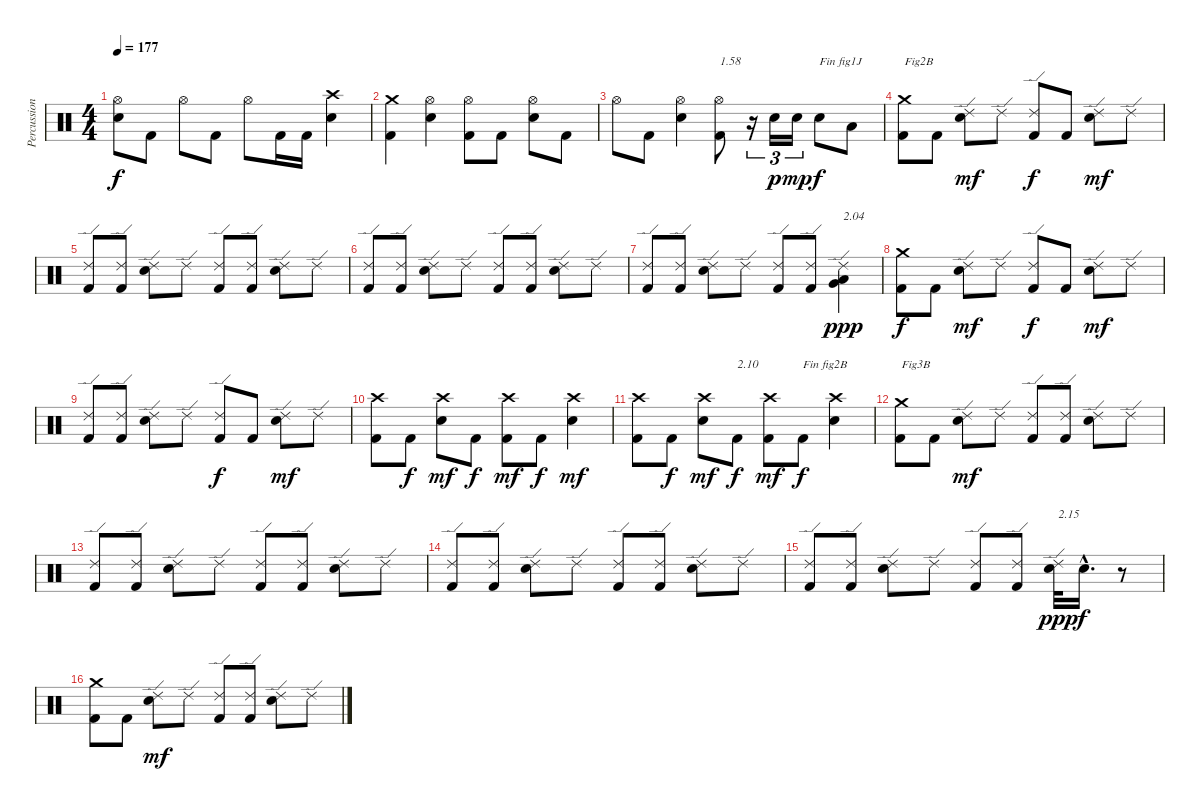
\track ("Percussions" "Percussion") {instrument percussion}
\staff {score}
\articulation defaults
\ts (4 4)
\tempo 177
\clef neutral
\ks c
("Electric Snare (hit)" "Hi-Hat (open)").8{dy f} "Kick (hit) 2".8 "Hi-Hat (open)".8 "Kick (hit) 2".8 "Hi-Hat (open)".8 "Kick (hit) 2".16 "Kick (hit) 2".16 ("Electric Snare (hit)" "Crash high (hit)").4 |
("Kick (hit) 2" "Crash medium (hit)").4 ("Electric Snare (hit)" "Hi-Hat (open)").4 ("Kick (hit) 2" "Hi-Hat (open)").8 "Kick (hit) 2".8 ("Electric Snare (hit)" "Hi-Hat (open)").8 "Kick (hit) 2".8 |
"Hi-Hat (open)".8 "Kick (hit) 2".8 ("Electric Snare (hit)" "Hi-Hat (open)").4 ("Kick (hit) 2" "Hi-Hat (open)").8{txt "1.58"} r.16{tu (3 2)} "Electric Snare (hit)".16{tu (3 2) dy p} "Electric Snare (hit)".16{tu (3 2) dy mp} "Electric Snare (hit)".8{txt "Fin fig1J" dy f} "Low Tom (hit)".8 |
("Kick (hit) 2" "Crash medium (hit)").8{txt "Fig2B"} "Kick (hit) 2".8 ("Electric Snare (hit)" "Ride (edge) 2").8{dy mf} "Ride (edge) 2".8 ("Kick (hit) 2" "Ride (edge) 2").8{dy f} "Kick (hit) 2".8 ("Electric Snare (hit)" "Ride (edge) 2").8{dy mf} "Ride (edge) 2".8 |
("Kick (hit) 2" "Ride (edge) 2").8 ("Kick (hit) 2" "Ride (edge) 2").8 ("Electric Snare (hit)" "Ride (edge) 2").8 "Ride (edge) 2".8 ("Kick (hit) 2" "Ride (edge) 2").8 ("Kick (hit) 2" "Ride (edge) 2").8 ("Electric Snare (hit)" "Ride (edge) 2").8 "Ride (edge) 2".8 |
("Kick (hit) 2" "Ride (edge) 2").8 ("Kick (hit) 2" "Ride (edge) 2").8 ("Electric Snare (hit)" "Ride (edge) 2").8 "Ride (edge) 2".8 ("Kick (hit) 2" "Ride (edge) 2").8 ("Kick (hit) 2" "Ride (edge) 2").8 ("Electric Snare (hit)" "Ride (edge) 2").8 "Ride (edge) 2".8 |
("Kick (hit) 2" "Ride (edge) 2").8 ("Kick (hit) 2" "Ride (edge) 2").8 ("Electric Snare (hit)" "Ride (edge) 2").8 "Ride (edge) 2".8 ("Kick (hit) 2" "Ride (edge) 2").8 ("Kick (hit) 2" "Ride (edge) 2").8 ("Low Floor Tom (hit)" "Very Low Tom (hit)" "Ride (edge) 2").4{txt "2.04" dy ppp} |
("Kick (hit) 2" "Crash medium (hit)").8{dy f} "Kick (hit) 2".8 ("Electric Snare (hit)" "Ride (edge) 2").8{dy mf} "Ride (edge) 2".8 ("Kick (hit) 2" "Ride (edge) 2").8{dy f} "Kick (hit) 2".8 ("Electric Snare (hit)" "Ride (edge) 2").8{dy mf} "Ride (edge) 2".8 |
("Kick (hit) 2" "Ride (edge) 2").8 ("Kick (hit) 2" "Ride (edge) 2").8 ("Electric Snare (hit)" "Ride (edge) 2").8 "Ride (edge) 2".8 ("Kick (hit) 2" "Ride (edge) 2").8{dy f} "Kick (hit) 2".8 ("Electric Snare (hit)" "Ride (edge) 2").8{dy mf} "Ride (edge) 2".8 |
("Kick (hit) 2" "Crash high (hit)").8 "Kick (hit) 2".8{dy f} ("Electric Snare (hit)" "Crash high (hit)").8{dy mf} "Kick (hit) 2".8{dy f} ("Kick (hit) 2" "Crash high (hit)").8{dy mf} "Kick (hit) 2".8{dy f} ("Electric Snare (hit)" "Crash high (hit)").4{dy mf} |
("Kick (hit) 2" "Crash high (hit)").8 "Kick (hit) 2".8{dy f} ("Electric Snare (hit)" "Crash high (hit)").8{dy mf} "Kick (hit) 2".8{txt "2.10" dy f} ("Kick (hit) 2" "Crash high (hit)").8{dy mf} "Kick (hit) 2".8{txt "Fin fig2B" dy f} ("Electric Snare (hit)" "Crash high (hit)").4 |
("Kick (hit) 2" "Crash medium (hit)").8{txt "Fig3B"} "Kick (hit) 2".8 ("Electric Snare (hit)" "Ride (edge) 2").8{dy mf} "Ride (edge) 2".8 ("Kick (hit) 2" "Ride (edge) 2").8 ("Kick (hit) 2" "Ride (edge) 2").8 ("Electric Snare (hit)" "Ride (edge) 2").8 "Ride (edge) 2".8 |
("Kick (hit) 2" "Ride (edge) 2").8 ("Kick (hit) 2" "Ride (edge) 2").8 ("Electric Snare (hit)" "Ride (edge) 2").8 "Ride (edge) 2".8 ("Kick (hit) 2" "Ride (edge) 2").8 ("Kick (hit) 2" "Ride (edge) 2").8 ("Electric Snare (hit)" "Ride (edge) 2").8 "Ride (edge) 2".8 |
("Kick (hit) 2" "Ride (edge) 2").8 ("Kick (hit) 2" "Ride (edge) 2").8 ("Electric Snare (hit)" "Ride (edge) 2").8 "Ride (edge) 2".8 ("Kick (hit) 2" "Ride (edge) 2").8 ("Kick (hit) 2" "Ride (edge) 2").8 ("Electric Snare (hit)" "Ride (edge) 2").8 "Ride (edge) 2".8 |
("Kick (hit) 2" "Ride (edge) 2").8 ("Kick (hit) 2" "Ride (edge) 2").8 ("Electric Snare (hit)" "Ride (edge) 2").8 "Ride (edge) 2".8 ("Kick (hit) 2" "Ride (edge) 2").8 ("Kick (hit) 2" "Ride (edge) 2").8 ("Electric Snare (hit)" "Ride (edge) 2").32{txt "2.15" dy ppp} "Electric Snare (hit)"{hac}.16{d dy f} r.8 |
("Kick (hit) 2" "Crash medium (hit)").8 "Kick (hit) 2".8 ("Electric Snare (hit)" "Ride (edge) 2").8{dy mf} "Ride (edge) 2".8 ("Kick (hit) 2" "Ride (edge) 2").8 ("Kick (hit) 2" "Ride (edge) 2").8 ("Electric Snare (hit)" "Ride (edge) 2").8 "Ride (edge) 2".8
